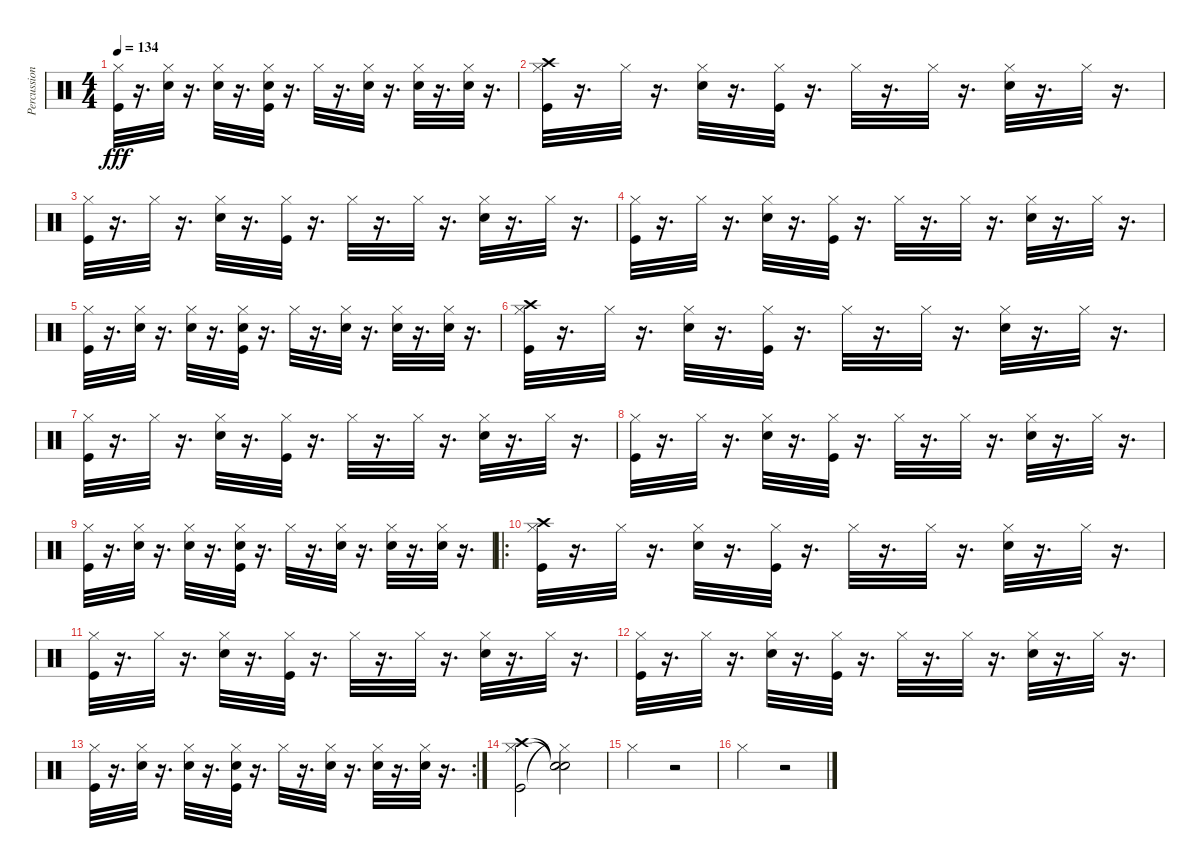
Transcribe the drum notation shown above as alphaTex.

\track ("Percussion (Rico)" "Percussion") {instrument percussion}
\staff {score}
\articulation defaults
\ts (4 4)
\tempo 134
\clef neutral
\ks c
("Kick (hit)" "Hi-Hat (closed)").32{dy fff} r.16{d} ("Hi-Hat (closed)" "Electric Snare (hit)").32 r.16{d} ("Electric Snare (hit)" "Hi-Hat (closed)").32 r.16{d} ("Kick (hit)" "Hi-Hat (closed)" "Electric Snare (hit)").32 r.16{d} "Hi-Hat (closed)".32 r.16{d} ("Hi-Hat (closed)" "Electric Snare (hit)").32 r.16{d} ("Electric Snare (hit)" "Hi-Hat (closed)").32 r.16{d} ("Hi-Hat (closed)" "Electric Snare (hit)").32 r.16{d} |
("Kick (hit)" "Hi-Hat (closed)" "Crash high (hit)").32 r.16{d} "Hi-Hat (closed)".32 r.16{d} ("Electric Snare (hit)" "Hi-Hat (closed)").32 r.16{d} ("Kick (hit)" "Hi-Hat (closed)").32 r.16{d} "Hi-Hat (closed)".32 r.16{d} "Hi-Hat (closed)".32 r.16{d} ("Electric Snare (hit)" "Hi-Hat (closed)").32 r.16{d} "Hi-Hat (closed)".32 r.16{d} |
("Kick (hit)" "Hi-Hat (closed)").32 r.16{d} "Hi-Hat (closed)".32 r.16{d} ("Electric Snare (hit)" "Hi-Hat (closed)").32 r.16{d} ("Kick (hit)" "Hi-Hat (closed)").32 r.16{d} "Hi-Hat (closed)".32 r.16{d} "Hi-Hat (closed)".32 r.16{d} ("Electric Snare (hit)" "Hi-Hat (closed)").32 r.16{d} "Hi-Hat (closed)".32 r.16{d} |
("Kick (hit)" "Hi-Hat (closed)").32 r.16{d} "Hi-Hat (closed)".32 r.16{d} ("Electric Snare (hit)" "Hi-Hat (closed)").32 r.16{d} ("Kick (hit)" "Hi-Hat (closed)").32 r.16{d} "Hi-Hat (closed)".32 r.16{d} "Hi-Hat (closed)".32 r.16{d} ("Electric Snare (hit)" "Hi-Hat (closed)").32 r.16{d} "Hi-Hat (closed)".32 r.16{d} |
("Kick (hit)" "Hi-Hat (closed)").32 r.16{d} ("Hi-Hat (closed)" "Electric Snare (hit)").32 r.16{d} ("Electric Snare (hit)" "Hi-Hat (closed)").32 r.16{d} ("Kick (hit)" "Hi-Hat (closed)" "Electric Snare (hit)").32 r.16{d} "Hi-Hat (closed)".32 r.16{d} ("Hi-Hat (closed)" "Electric Snare (hit)").32 r.16{d} ("Electric Snare (hit)" "Hi-Hat (closed)").32 r.16{d} ("Hi-Hat (closed)" "Electric Snare (hit)").32 r.16{d} |
("Kick (hit)" "Hi-Hat (closed)" "Crash high (hit)").32 r.16{d} "Hi-Hat (closed)".32 r.16{d} ("Electric Snare (hit)" "Hi-Hat (closed)").32 r.16{d} ("Kick (hit)" "Hi-Hat (closed)").32 r.16{d} "Hi-Hat (closed)".32 r.16{d} "Hi-Hat (closed)".32 r.16{d} ("Electric Snare (hit)" "Hi-Hat (closed)").32 r.16{d} "Hi-Hat (closed)".32 r.16{d} |
("Kick (hit)" "Hi-Hat (closed)").32 r.16{d} "Hi-Hat (closed)".32 r.16{d} ("Electric Snare (hit)" "Hi-Hat (closed)").32 r.16{d} ("Kick (hit)" "Hi-Hat (closed)").32 r.16{d} "Hi-Hat (closed)".32 r.16{d} "Hi-Hat (closed)".32 r.16{d} ("Electric Snare (hit)" "Hi-Hat (closed)").32 r.16{d} "Hi-Hat (closed)".32 r.16{d} |
("Kick (hit)" "Hi-Hat (closed)").32 r.16{d} "Hi-Hat (closed)".32 r.16{d} ("Electric Snare (hit)" "Hi-Hat (closed)").32 r.16{d} ("Kick (hit)" "Hi-Hat (closed)").32 r.16{d} "Hi-Hat (closed)".32 r.16{d} "Hi-Hat (closed)".32 r.16{d} ("Electric Snare (hit)" "Hi-Hat (closed)").32 r.16{d} "Hi-Hat (closed)".32 r.16{d} |
("Kick (hit)" "Hi-Hat (closed)").32 r.16{d} ("Hi-Hat (closed)" "Electric Snare (hit)").32 r.16{d} ("Electric Snare (hit)" "Hi-Hat (closed)").32 r.16{d} ("Kick (hit)" "Hi-Hat (closed)" "Electric Snare (hit)").32 r.16{d} "Hi-Hat (closed)".32 r.16{d} ("Hi-Hat (closed)" "Electric Snare (hit)").32 r.16{d} ("Electric Snare (hit)" "Hi-Hat (closed)").32 r.16{d} ("Hi-Hat (closed)" "Electric Snare (hit)").32 r.16{d} |
\ro
("Kick (hit)" "Hi-Hat (closed)" "Crash high (hit)").32 r.16{d} "Hi-Hat (closed)".32 r.16{d} ("Electric Snare (hit)" "Hi-Hat (closed)").32 r.16{d} ("Kick (hit)" "Hi-Hat (closed)").32 r.16{d} "Hi-Hat (closed)".32 r.16{d} "Hi-Hat (closed)".32 r.16{d} ("Electric Snare (hit)" "Hi-Hat (closed)").32 r.16{d} "Hi-Hat (closed)".32 r.16{d} |
("Kick (hit)" "Hi-Hat (closed)").32 r.16{d} "Hi-Hat (closed)".32 r.16{d} ("Electric Snare (hit)" "Hi-Hat (closed)").32 r.16{d} ("Kick (hit)" "Hi-Hat (closed)").32 r.16{d} "Hi-Hat (closed)".32 r.16{d} "Hi-Hat (closed)".32 r.16{d} ("Electric Snare (hit)" "Hi-Hat (closed)").32 r.16{d} "Hi-Hat (closed)".32 r.16{d} |
("Kick (hit)" "Hi-Hat (closed)").32 r.16{d} "Hi-Hat (closed)".32 r.16{d} ("Electric Snare (hit)" "Hi-Hat (closed)").32 r.16{d} ("Kick (hit)" "Hi-Hat (closed)").32 r.16{d} "Hi-Hat (closed)".32 r.16{d} "Hi-Hat (closed)".32 r.16{d} ("Electric Snare (hit)" "Hi-Hat (closed)").32 r.16{d} "Hi-Hat (closed)".32 r.16{d} |
\rc 2
("Kick (hit)" "Hi-Hat (closed)").32 r.16{d} ("Hi-Hat (closed)" "Electric Snare (hit)").32 r.16{d} ("Electric Snare (hit)" "Hi-Hat (closed)").32 r.16{d} ("Kick (hit)" "Hi-Hat (closed)" "Electric Snare (hit)").32 r.16{d} "Hi-Hat (closed)".32 r.16{d} ("Hi-Hat (closed)" "Electric Snare (hit)").32 r.16{d} ("Electric Snare (hit)" "Hi-Hat (closed)").32 r.16{d} ("Hi-Hat (closed)" "Electric Snare (hit)").32 r.16{d} |
("Kick (hit)" "Hi-Hat (closed)" "Crash high (hit)").2 ("Hi-Hat (closed)"{t} "Snare (hit)"{t} "Snare (hit)"{t}).2 |
"Hi-Hat (closed)".2 r.2 |
"Hi-Hat (closed)".2 r.2
